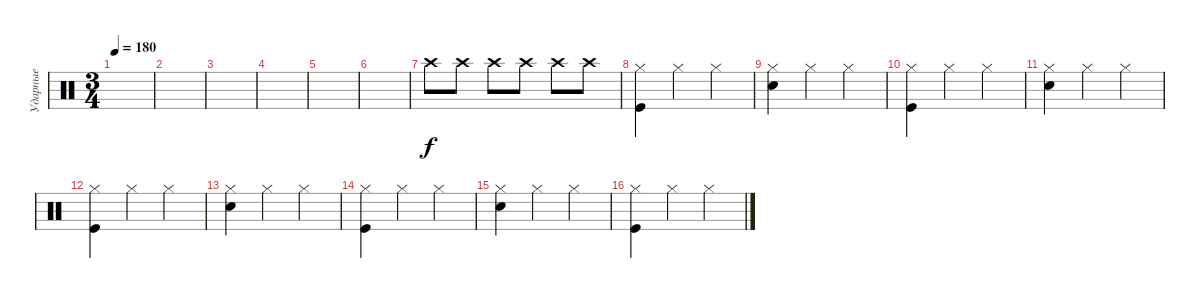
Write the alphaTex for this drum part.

\track ("Ударные" "Ударные") {instrument percussion}
\staff {score}
\articulation defaults
\ts (3 4)
\tempo 180
\clef neutral
\ks c
|
|
|
|
|
|
"Crash high (hit)".8 "Crash high (hit)".8 "Crash high (hit)".8 "Crash high (hit)".8 "Crash high (hit)".8 "Crash high (hit)".8 |
("Kick (hit)" "Hi-Hat (closed)").4 "Hi-Hat (closed)".4 "Hi-Hat (closed)".4 |
("Snare (hit) 2" "Hi-Hat (closed)").4 "Hi-Hat (closed)".4 "Hi-Hat (closed)".4 |
("Kick (hit)" "Hi-Hat (closed)").4 "Hi-Hat (closed)".4 "Hi-Hat (closed)".4 |
("Snare (hit) 2" "Hi-Hat (closed)").4 "Hi-Hat (closed)".4 "Hi-Hat (closed)".4 |
("Kick (hit)" "Hi-Hat (closed)").4 "Hi-Hat (closed)".4 "Hi-Hat (closed)".4 |
("Snare (hit) 2" "Hi-Hat (closed)").4 "Hi-Hat (closed)".4 "Hi-Hat (closed)".4 |
("Kick (hit)" "Hi-Hat (closed)").4 "Hi-Hat (closed)".4 "Hi-Hat (closed)".4 |
("Snare (hit) 2" "Hi-Hat (closed)").4 "Hi-Hat (closed)".4 "Hi-Hat (closed)".4 |
("Kick (hit)" "Hi-Hat (closed)").4 "Hi-Hat (closed)".4 "Hi-Hat (closed)".4
